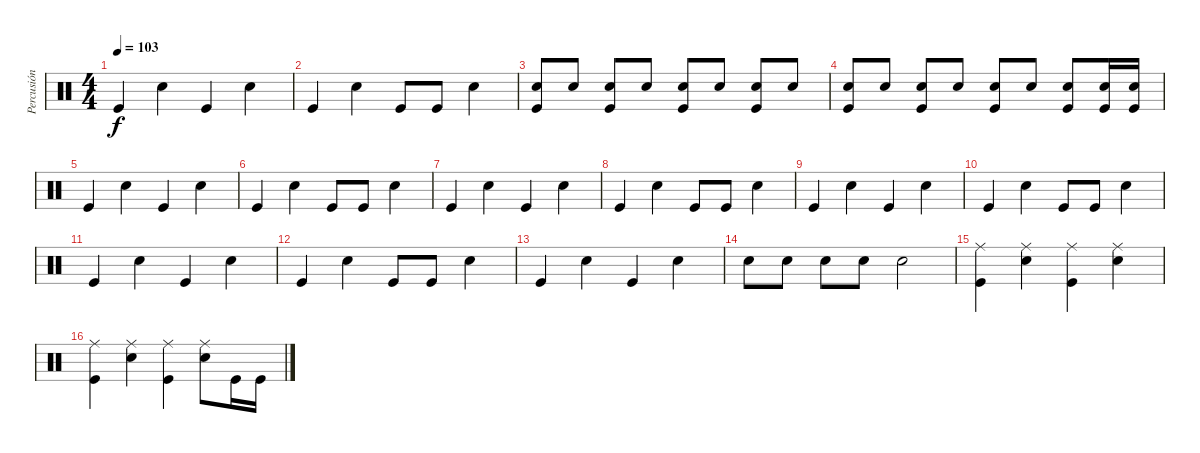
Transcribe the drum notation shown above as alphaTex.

\track ("Percusión" "Percusión") {instrument percussion}
\staff {score}
\articulation defaults
\ts (4 4)
\tempo 103
\clef neutral
\ks c "Kick (hit)".4{dy f} "Electric Snare (hit)".4 "Kick (hit)".4 "Electric Snare (hit)".4
|
"Kick (hit)".4 "Electric Snare (hit)".4 "Kick (hit)".8 "Kick (hit)".8 "Electric Snare (hit)".4 |
("Electric Snare (hit)" "Kick (hit)").8{volume 7} "Electric Snare (hit)".8{volume 13} ("Electric Snare (hit)" "Kick (hit)").8 "Electric Snare (hit)".8 ("Electric Snare (hit)" "Kick (hit)").8 "Electric Snare (hit)".8 ("Electric Snare (hit)" "Kick (hit)").8 "Electric Snare (hit)".8 |
("Electric Snare (hit)" "Kick (hit)").8 "Electric Snare (hit)".8 ("Electric Snare (hit)" "Kick (hit)").8 "Electric Snare (hit)".8 ("Electric Snare (hit)" "Kick (hit)").8 "Electric Snare (hit)".8 ("Electric Snare (hit)" "Kick (hit)").8 ("Electric Snare (hit)" "Kick (hit)").16 ("Electric Snare (hit)" "Kick (hit)").16 |
"Kick (hit)".4 "Electric Snare (hit)".4 "Kick (hit)".4 "Electric Snare (hit)".4 |
"Kick (hit)".4 "Electric Snare (hit)".4 "Kick (hit)".8 "Kick (hit)".8 "Electric Snare (hit)".4 |
"Kick (hit)".4 "Electric Snare (hit)".4 "Kick (hit)".4 "Electric Snare (hit)".4 |
"Kick (hit)".4 "Electric Snare (hit)".4 "Kick (hit)".8 "Kick (hit)".8 "Electric Snare (hit)".4 |
"Kick (hit)".4 "Electric Snare (hit)".4 "Kick (hit)".4 "Electric Snare (hit)".4 |
"Kick (hit)".4 "Electric Snare (hit)".4 "Kick (hit)".8 "Kick (hit)".8 "Electric Snare (hit)".4 |
"Kick (hit)".4 "Electric Snare (hit)".4 "Kick (hit)".4 "Electric Snare (hit)".4 |
"Kick (hit)".4 "Electric Snare (hit)".4 "Kick (hit)".8 "Kick (hit)".8 "Electric Snare (hit)".4 |
"Kick (hit)".4 "Electric Snare (hit)".4 "Kick (hit)".4 "Electric Snare (hit)".4 |
"Electric Snare (hit)".8{volume 5} "Electric Snare (hit)".8{volume 13} "Electric Snare (hit)".8 "Electric Snare (hit)".8 "Electric Snare (hit)".2 |
("Kick (hit)" "Ride (middle)").4 ("Electric Snare (hit)" "Ride (middle)").4 ("Kick (hit)" "Ride (middle)").4 ("Electric Snare (hit)" "Ride (middle)").4 |
("Kick (hit)" "Ride (middle)").4 ("Electric Snare (hit)" "Ride (middle)").4 ("Kick (hit)" "Ride (middle)").4 ("Electric Snare (hit)" "Ride (middle)").8 "Kick (hit)".16 "Kick (hit)".16
